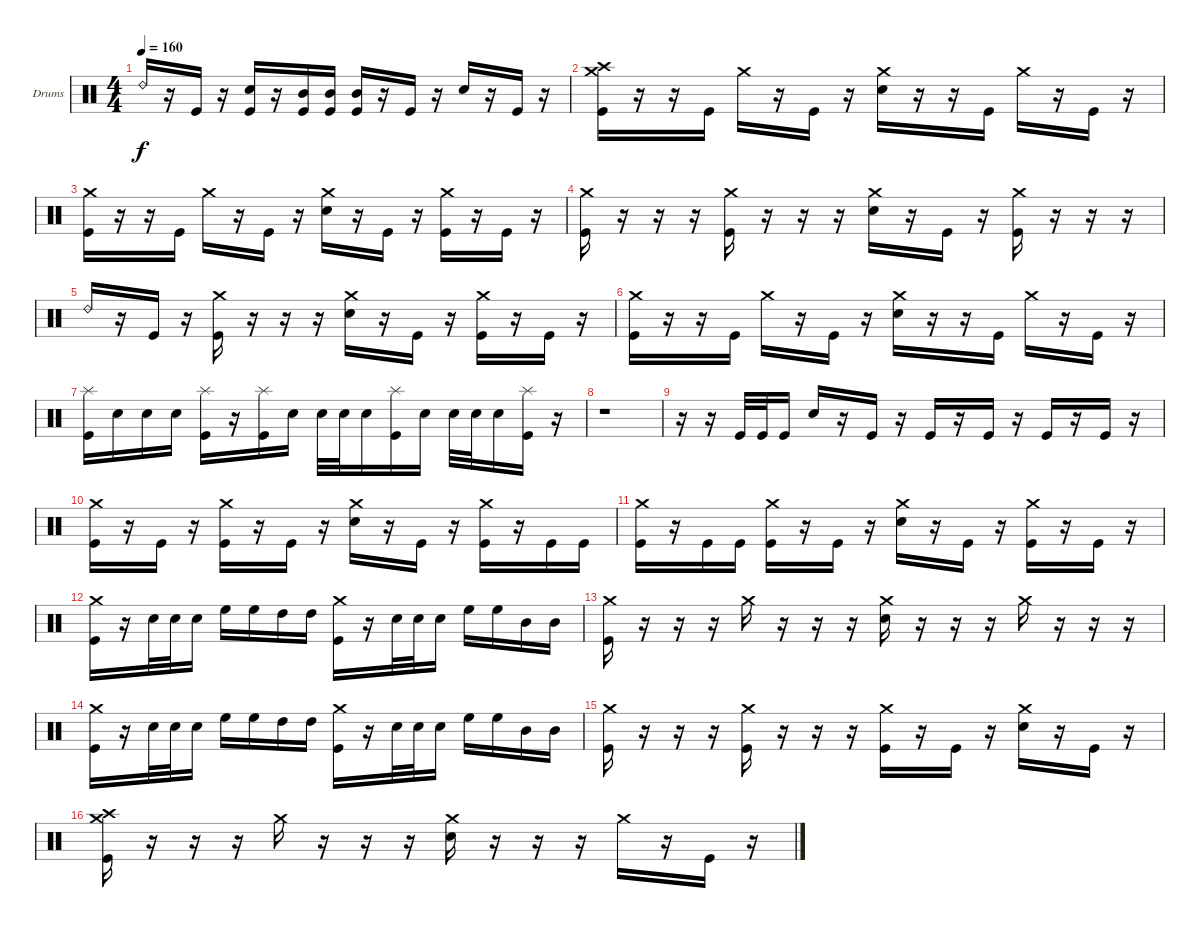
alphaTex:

\bracketExtendMode groupsimilarinstruments
\firstSystemTrackNameOrientation horizontal
\otherSystemsTrackNameOrientation horizontal
\track ("Drumkit" "Drums") {solo instrument percussion}
\staff {score}
\articulation defaults
\ts (4 4)
\tempo 160
\clef neutral
\ks c "Ride (bell) 2".16{dy f}
r.16 "Kick (hit)".16 r.16 ("Snare (hit) 2" "Kick (hit)").16 r.16 ("Mid Tom (hit)" "Kick (hit)").16 ("Mid Tom (hit)" "Kick (hit)").16 ("Mid Tom (hit)" "Kick (hit)").16 r.16 "Kick (hit)".16 r.16 "Snare (hit) 2".16 r.16 "Kick (hit)".16 r.16 |
("Crash medium (hit)" "Crash high (hit)" "Kick (hit)").16 r.16 r.16 "Kick (hit)".16 "Crash medium (hit)".16 r.16 "Kick (hit)".16 r.16 ("Crash medium (hit)" "Snare (hit) 2").16 r.16 r.16 "Kick (hit)".16 "Crash medium (hit)".16 r.16 "Kick (hit)".16 r.16 |
("Crash medium (hit)" "Kick (hit)").16 r.16 r.16 "Kick (hit)".16 "Crash medium (hit)".16 r.16 "Kick (hit)".16 r.16 ("Crash medium (hit)" "Snare (hit) 2").16 r.16 "Kick (hit)".16 r.16 ("Crash medium (hit)" "Kick (hit)").16 r.16 "Kick (hit)".16 r.16 |
("Crash medium (hit)" "Kick (hit)").16 r.16 r.16 r.16 ("Crash medium (hit)" "Kick (hit)").16 r.16 r.16 r.16 ("Crash medium (hit)" "Snare (hit) 2").16 r.16 "Kick (hit)".16 r.16 ("Crash medium (hit)" "Kick (hit)").16 r.16 r.16 r.16 |
"Ride (bell) 2".16 r.16 "Kick (hit)".16 r.16 ("Crash medium (hit)" "Kick (hit)").16 r.16 r.16 r.16 ("Crash medium (hit)" "Snare (hit) 2").16 r.16 "Kick (hit)".16 r.16 ("Crash medium (hit)" "Kick (hit)").16 r.16 "Kick (hit)".16 r.16 |
("Crash medium (hit)" "Kick (hit)").16 r.16 r.16 "Kick (hit)".16 "Crash medium (hit)".16 r.16 "Kick (hit)".16 r.16 ("Crash medium (hit)" "Snare (hit) 2").16 r.16 r.16 "Kick (hit)".16 "Crash medium (hit)".16 r.16 "Kick (hit)".16 r.16 |
("Splash (hit)" "Kick (hit)").16 "Snare (hit) 2".16 "Snare (hit) 2".16 "Snare (hit) 2".16 ("Splash (hit)" "Kick (hit)").16 r.16 ("Splash (hit)" "Kick (hit)").16 "Snare (hit) 2".16 "Snare (hit) 2".32 "Snare (hit) 2".32 "Snare (hit) 2".16 ("Splash (hit)" "Kick (hit)").16 "Snare (hit) 2".16 "Snare (hit) 2".32 "Snare (hit) 2".32 "Snare (hit) 2".16 ("Splash (hit)" "Kick (hit)").16 r.16 |
r.1 |
r.16 r.16 "Kick (hit)".32 "Kick (hit)".32 "Kick (hit)".16 "Snare (hit) 2".16 r.16 "Kick (hit)".16 r.16 "Kick (hit)".16 r.16 "Kick (hit)".16 r.16 "Kick (hit)".16 r.16 "Kick (hit)".16 r.16 |
("Crash medium (hit)" "Kick (hit)").16 r.16 "Kick (hit)".16 r.16 ("Crash medium (hit)" "Kick (hit)").16 r.16 "Kick (hit)".16 r.16 ("Crash medium (hit)" "Snare (hit) 2").16 r.16 "Kick (hit)".16 r.16 ("Crash medium (hit)" "Kick (hit)").16 r.16 "Kick (hit)".16 "Kick (hit)".16 |
("Crash medium (hit)" "Kick (hit)").16 r.16 "Kick (hit)".16 "Kick (hit)".16 ("Crash medium (hit)" "Kick (hit)").16 r.16 "Kick (hit)".16 r.16 ("Crash medium (hit)" "Snare (hit) 2").16 r.16 "Kick (hit)".16 r.16 ("Crash medium (hit)" "Kick (hit)").16 r.16 "Kick (hit)".16 r.16 |
("Crash medium (hit)" "Kick (hit)").16 r.16 "Snare (hit) 2".32 "Snare (hit) 2".32 "Snare (hit) 2".16 "High Floor Tom (hit)".16 "High Floor Tom (hit)".16 "High Tom (hit)".16 "High Tom (hit)".16 ("Crash medium (hit)" "Kick (hit)").16 r.16 "Snare (hit) 2".32 "Snare (hit) 2".32 "Snare (hit) 2".16 "High Floor Tom (hit)".16 "High Floor Tom (hit)".16 "Mid Tom (hit)".16 "Mid Tom (hit)".16 |
("Crash medium (hit)" "Kick (hit)").16 r.16 r.16 r.16 "Crash medium (hit)".16 r.16 r.16 r.16 ("Crash medium (hit)" "Snare (hit) 2").16 r.16 r.16 r.16 "Crash medium (hit)".16 r.16 r.16 r.16 |
("Crash medium (hit)" "Kick (hit)").16 r.16 "Snare (hit) 2".32 "Snare (hit) 2".32 "Snare (hit) 2".16 "High Floor Tom (hit)".16 "High Floor Tom (hit)".16 "High Tom (hit)".16 "High Tom (hit)".16 ("Crash medium (hit)" "Kick (hit)").16 r.16 "Snare (hit) 2".32 "Snare (hit) 2".32 "Snare (hit) 2".16 "High Floor Tom (hit)".16 "High Floor Tom (hit)".16 "Mid Tom (hit)".16 "Mid Tom (hit)".16 |
("Crash medium (hit)" "Kick (hit)").16 r.16 r.16 r.16 ("Crash medium (hit)" "Kick (hit)").16 r.16 r.16 r.16 ("Crash medium (hit)" "Kick (hit)").16 r.16 "Kick (hit)".16 r.16 ("Crash medium (hit)" "Snare (hit) 2").16 r.16 "Kick (hit)".16 r.16 |
("Crash medium (hit)" "Crash high (hit)" "Kick (hit)").16 r.16 r.16 r.16 "Crash medium (hit)".16 r.16 r.16 r.16 ("Crash medium (hit)" "Snare (hit) 2").16 r.16 r.16 r.16 "Crash medium (hit)".16 r.16 "Kick (hit)".16 r.16
